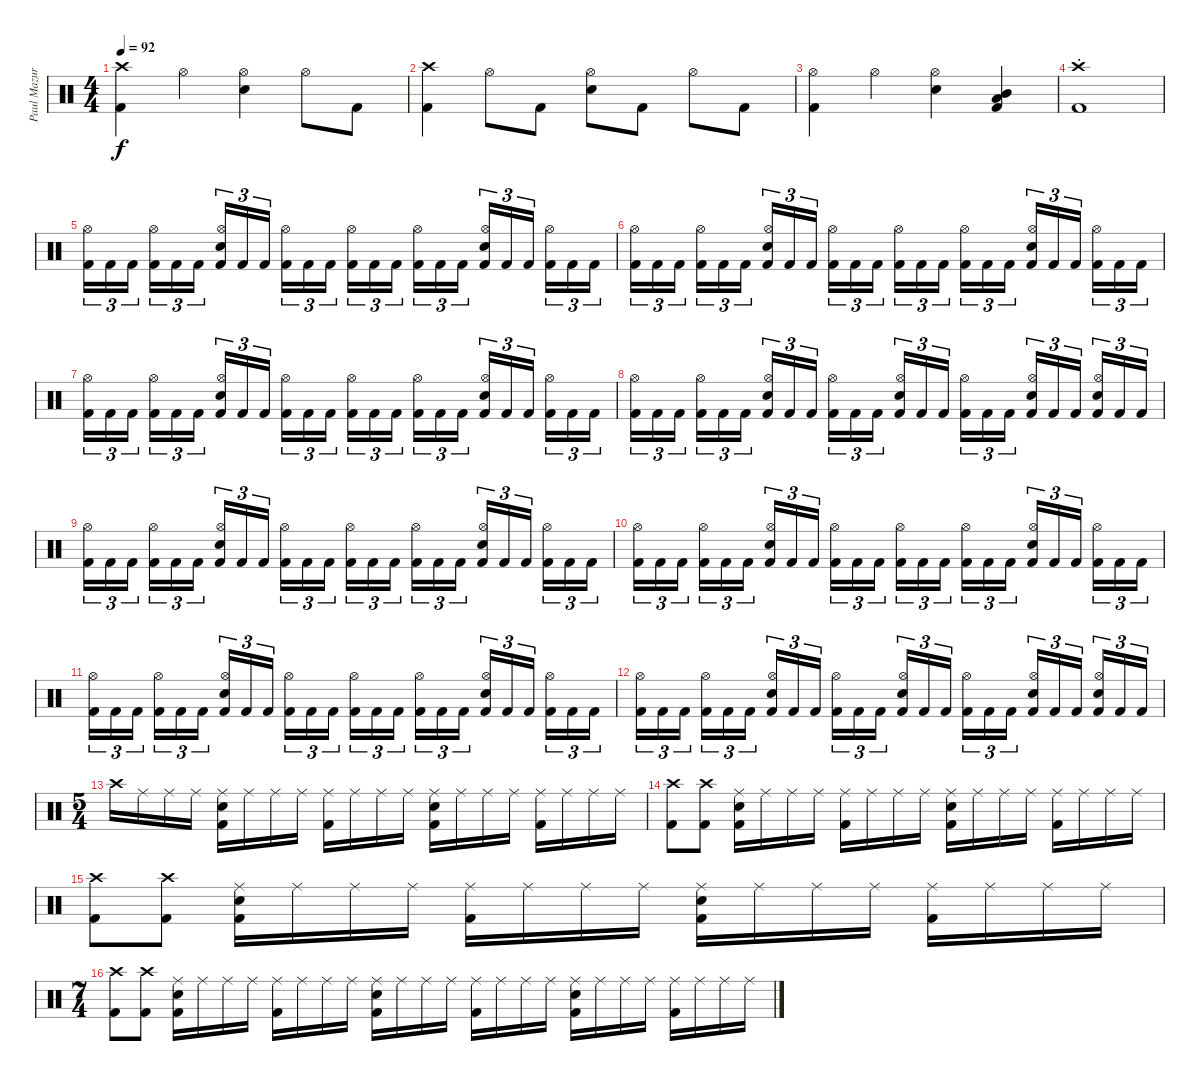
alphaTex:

\track ("Paul Mazurkiewicz" "Paul Mazur") {instrument percussion}
\staff {score}
\articulation defaults
\ts (4 4)
\tempo 92
\clef neutral
\ks c
("Crash high (hit)" "Kick (hit) 2").4{dy f} "Hi-Hat (open)".4 ("Hi-Hat (open)" "Snare (hit) 2").4 "Hi-Hat (open)".8 "Kick (hit) 2".8 |
("Crash high (hit)" "Kick (hit) 2").4 "Hi-Hat (open)".8 "Kick (hit) 2".8 ("Hi-Hat (open)" "Snare (hit) 2").8 "Kick (hit) 2".8 "Hi-Hat (open)".8 "Kick (hit) 2".8 |
("Hi-Hat (open)" "Kick (hit) 2").4 "Hi-Hat (open)".4 ("Hi-Hat (open)" "Snare (hit) 2").4 ("Low Tom (hit)" "Mid Tom (hit)" "Kick (hit) 2").4 |
("Crash high (hit)" "Kick (hit) 2"{st}).1 |
("Hi-Hat (open)" "Kick (hit) 2").16{tu (3 2)} "Kick (hit) 2".16{tu (3 2)} "Kick (hit) 2".16{tu (3 2) beam splitsecondary} ("Hi-Hat (open)" "Kick (hit) 2").16{tu (3 2)} "Kick (hit) 2".16{tu (3 2)} "Kick (hit) 2".16{tu (3 2)} ("Hi-Hat (open)" "Snare (hit) 2" "Kick (hit) 2").16{tu (3 2)} "Kick (hit) 2".16{tu (3 2)} "Kick (hit) 2".16{tu (3 2) beam splitsecondary} ("Hi-Hat (open)" "Kick (hit) 2").16{tu (3 2)} "Kick (hit) 2".16{tu (3 2)} "Kick (hit) 2".16{tu (3 2)} ("Hi-Hat (open)" "Kick (hit) 2").16{tu (3 2)} "Kick (hit) 2".16{tu (3 2)} "Kick (hit) 2".16{tu (3 2) beam splitsecondary} ("Hi-Hat (open)" "Kick (hit) 2").16{tu (3 2)} "Kick (hit) 2".16{tu (3 2)} "Kick (hit) 2".16{tu (3 2)} ("Hi-Hat (open)" "Snare (hit) 2" "Kick (hit) 2").16{tu (3 2)} "Kick (hit) 2".16{tu (3 2)} "Kick (hit) 2".16{tu (3 2) beam splitsecondary} ("Hi-Hat (open)" "Kick (hit) 2").16{tu (3 2)} "Kick (hit) 2".16{tu (3 2)} "Kick (hit) 2".16{tu (3 2)} |
("Hi-Hat (open)" "Kick (hit) 2").16{tu (3 2)} "Kick (hit) 2".16{tu (3 2)} "Kick (hit) 2".16{tu (3 2) beam splitsecondary} ("Hi-Hat (open)" "Kick (hit) 2").16{tu (3 2)} "Kick (hit) 2".16{tu (3 2)} "Kick (hit) 2".16{tu (3 2)} ("Hi-Hat (open)" "Snare (hit) 2" "Kick (hit) 2").16{tu (3 2)} "Kick (hit) 2".16{tu (3 2)} "Kick (hit) 2".16{tu (3 2) beam splitsecondary} ("Hi-Hat (open)" "Kick (hit) 2").16{tu (3 2)} "Kick (hit) 2".16{tu (3 2)} "Kick (hit) 2".16{tu (3 2)} ("Hi-Hat (open)" "Kick (hit) 2").16{tu (3 2)} "Kick (hit) 2".16{tu (3 2)} "Kick (hit) 2".16{tu (3 2) beam splitsecondary} ("Hi-Hat (open)" "Kick (hit) 2").16{tu (3 2)} "Kick (hit) 2".16{tu (3 2)} "Kick (hit) 2".16{tu (3 2)} ("Hi-Hat (open)" "Snare (hit) 2" "Kick (hit) 2").16{tu (3 2)} "Kick (hit) 2".16{tu (3 2)} "Kick (hit) 2".16{tu (3 2) beam splitsecondary} ("Hi-Hat (open)" "Kick (hit) 2").16{tu (3 2)} "Kick (hit) 2".16{tu (3 2)} "Kick (hit) 2".16{tu (3 2)} |
("Hi-Hat (open)" "Kick (hit) 2").16{tu (3 2)} "Kick (hit) 2".16{tu (3 2)} "Kick (hit) 2".16{tu (3 2) beam splitsecondary} ("Hi-Hat (open)" "Kick (hit) 2").16{tu (3 2)} "Kick (hit) 2".16{tu (3 2)} "Kick (hit) 2".16{tu (3 2)} ("Hi-Hat (open)" "Snare (hit) 2" "Kick (hit) 2").16{tu (3 2)} "Kick (hit) 2".16{tu (3 2)} "Kick (hit) 2".16{tu (3 2) beam splitsecondary} ("Hi-Hat (open)" "Kick (hit) 2").16{tu (3 2)} "Kick (hit) 2".16{tu (3 2)} "Kick (hit) 2".16{tu (3 2)} ("Hi-Hat (open)" "Kick (hit) 2").16{tu (3 2)} "Kick (hit) 2".16{tu (3 2)} "Kick (hit) 2".16{tu (3 2) beam splitsecondary} ("Hi-Hat (open)" "Kick (hit) 2").16{tu (3 2)} "Kick (hit) 2".16{tu (3 2)} "Kick (hit) 2".16{tu (3 2)} ("Hi-Hat (open)" "Snare (hit) 2" "Kick (hit) 2").16{tu (3 2)} "Kick (hit) 2".16{tu (3 2)} "Kick (hit) 2".16{tu (3 2) beam splitsecondary} ("Hi-Hat (open)" "Kick (hit) 2").16{tu (3 2)} "Kick (hit) 2".16{tu (3 2)} "Kick (hit) 2".16{tu (3 2)} |
("Hi-Hat (open)" "Kick (hit) 2").16{tu (3 2)} "Kick (hit) 2".16{tu (3 2)} "Kick (hit) 2".16{tu (3 2) beam splitsecondary} ("Hi-Hat (open)" "Kick (hit) 2").16{tu (3 2)} "Kick (hit) 2".16{tu (3 2)} "Kick (hit) 2".16{tu (3 2)} ("Hi-Hat (open)" "Snare (hit) 2" "Kick (hit) 2").16{tu (3 2)} "Kick (hit) 2".16{tu (3 2)} "Kick (hit) 2".16{tu (3 2) beam splitsecondary} ("Hi-Hat (open)" "Kick (hit) 2").16{tu (3 2)} "Kick (hit) 2".16{tu (3 2)} "Kick (hit) 2".16{tu (3 2)} ("Hi-Hat (open)" "Snare (hit) 2" "Kick (hit) 2").16{tu (3 2)} "Kick (hit) 2".16{tu (3 2)} "Kick (hit) 2".16{tu (3 2) beam splitsecondary} ("Hi-Hat (open)" "Kick (hit) 2").16{tu (3 2)} "Kick (hit) 2".16{tu (3 2)} "Kick (hit) 2".16{tu (3 2)} ("Hi-Hat (open)" "Snare (hit) 2" "Kick (hit) 2").16{tu (3 2)} "Kick (hit) 2".16{tu (3 2)} "Kick (hit) 2".16{tu (3 2) beam splitsecondary} ("Hi-Hat (open)" "Snare (hit) 2" "Kick (hit) 2").16{tu (3 2)} "Kick (hit) 2".16{tu (3 2)} "Kick (hit) 2".16{tu (3 2)} |
("Hi-Hat (open)" "Kick (hit) 2").16{tu (3 2)} "Kick (hit) 2".16{tu (3 2)} "Kick (hit) 2".16{tu (3 2) beam splitsecondary} ("Hi-Hat (open)" "Kick (hit) 2").16{tu (3 2)} "Kick (hit) 2".16{tu (3 2)} "Kick (hit) 2".16{tu (3 2)} ("Hi-Hat (open)" "Snare (hit) 2" "Kick (hit) 2").16{tu (3 2)} "Kick (hit) 2".16{tu (3 2)} "Kick (hit) 2".16{tu (3 2) beam splitsecondary} ("Hi-Hat (open)" "Kick (hit) 2").16{tu (3 2)} "Kick (hit) 2".16{tu (3 2)} "Kick (hit) 2".16{tu (3 2)} ("Hi-Hat (open)" "Kick (hit) 2").16{tu (3 2)} "Kick (hit) 2".16{tu (3 2)} "Kick (hit) 2".16{tu (3 2) beam splitsecondary} ("Hi-Hat (open)" "Kick (hit) 2").16{tu (3 2)} "Kick (hit) 2".16{tu (3 2)} "Kick (hit) 2".16{tu (3 2)} ("Hi-Hat (open)" "Snare (hit) 2" "Kick (hit) 2").16{tu (3 2)} "Kick (hit) 2".16{tu (3 2)} "Kick (hit) 2".16{tu (3 2) beam splitsecondary} ("Hi-Hat (open)" "Kick (hit) 2").16{tu (3 2)} "Kick (hit) 2".16{tu (3 2)} "Kick (hit) 2".16{tu (3 2)} |
("Hi-Hat (open)" "Kick (hit) 2").16{tu (3 2)} "Kick (hit) 2".16{tu (3 2)} "Kick (hit) 2".16{tu (3 2) beam splitsecondary} ("Hi-Hat (open)" "Kick (hit) 2").16{tu (3 2)} "Kick (hit) 2".16{tu (3 2)} "Kick (hit) 2".16{tu (3 2)} ("Hi-Hat (open)" "Snare (hit) 2" "Kick (hit) 2").16{tu (3 2)} "Kick (hit) 2".16{tu (3 2)} "Kick (hit) 2".16{tu (3 2) beam splitsecondary} ("Hi-Hat (open)" "Kick (hit) 2").16{tu (3 2)} "Kick (hit) 2".16{tu (3 2)} "Kick (hit) 2".16{tu (3 2)} ("Hi-Hat (open)" "Kick (hit) 2").16{tu (3 2)} "Kick (hit) 2".16{tu (3 2)} "Kick (hit) 2".16{tu (3 2) beam splitsecondary} ("Hi-Hat (open)" "Kick (hit) 2").16{tu (3 2)} "Kick (hit) 2".16{tu (3 2)} "Kick (hit) 2".16{tu (3 2)} ("Hi-Hat (open)" "Snare (hit) 2" "Kick (hit) 2").16{tu (3 2)} "Kick (hit) 2".16{tu (3 2)} "Kick (hit) 2".16{tu (3 2) beam splitsecondary} ("Hi-Hat (open)" "Kick (hit) 2").16{tu (3 2)} "Kick (hit) 2".16{tu (3 2)} "Kick (hit) 2".16{tu (3 2)} |
("Hi-Hat (open)" "Kick (hit) 2").16{tu (3 2)} "Kick (hit) 2".16{tu (3 2)} "Kick (hit) 2".16{tu (3 2) beam splitsecondary} ("Hi-Hat (open)" "Kick (hit) 2").16{tu (3 2)} "Kick (hit) 2".16{tu (3 2)} "Kick (hit) 2".16{tu (3 2)} ("Hi-Hat (open)" "Snare (hit) 2" "Kick (hit) 2").16{tu (3 2)} "Kick (hit) 2".16{tu (3 2)} "Kick (hit) 2".16{tu (3 2) beam splitsecondary} ("Hi-Hat (open)" "Kick (hit) 2").16{tu (3 2)} "Kick (hit) 2".16{tu (3 2)} "Kick (hit) 2".16{tu (3 2)} ("Hi-Hat (open)" "Kick (hit) 2").16{tu (3 2)} "Kick (hit) 2".16{tu (3 2)} "Kick (hit) 2".16{tu (3 2) beam splitsecondary} ("Hi-Hat (open)" "Kick (hit) 2").16{tu (3 2)} "Kick (hit) 2".16{tu (3 2)} "Kick (hit) 2".16{tu (3 2)} ("Hi-Hat (open)" "Snare (hit) 2" "Kick (hit) 2").16{tu (3 2)} "Kick (hit) 2".16{tu (3 2)} "Kick (hit) 2".16{tu (3 2) beam splitsecondary} ("Hi-Hat (open)" "Kick (hit) 2").16{tu (3 2)} "Kick (hit) 2".16{tu (3 2)} "Kick (hit) 2".16{tu (3 2)} |
("Hi-Hat (open)" "Kick (hit) 2").16{tu (3 2)} "Kick (hit) 2".16{tu (3 2)} "Kick (hit) 2".16{tu (3 2) beam splitsecondary} ("Hi-Hat (open)" "Kick (hit) 2").16{tu (3 2)} "Kick (hit) 2".16{tu (3 2)} "Kick (hit) 2".16{tu (3 2)} ("Hi-Hat (open)" "Snare (hit) 2" "Kick (hit) 2").16{tu (3 2)} "Kick (hit) 2".16{tu (3 2)} "Kick (hit) 2".16{tu (3 2) beam splitsecondary} ("Hi-Hat (open)" "Kick (hit) 2").16{tu (3 2)} "Kick (hit) 2".16{tu (3 2)} "Kick (hit) 2".16{tu (3 2)} ("Hi-Hat (open)" "Snare (hit) 2" "Kick (hit) 2").16{tu (3 2)} "Kick (hit) 2".16{tu (3 2)} "Kick (hit) 2".16{tu (3 2) beam splitsecondary} ("Hi-Hat (open)" "Kick (hit) 2").16{tu (3 2)} "Kick (hit) 2".16{tu (3 2)} "Kick (hit) 2".16{tu (3 2)} ("Hi-Hat (open)" "Snare (hit) 2" "Kick (hit) 2").16{tu (3 2)} "Kick (hit) 2".16{tu (3 2)} "Kick (hit) 2".16{tu (3 2) beam splitsecondary} ("Hi-Hat (open)" "Snare (hit) 2" "Kick (hit) 2").16{tu (3 2)} "Kick (hit) 2".16{tu (3 2)} "Kick (hit) 2".16{tu (3 2)} |
\ts (5 4)
"Crash high (hit)".16 "Ride (middle)".16 "Ride (middle)".16 "Ride (middle)".16 ("Ride (middle)" "Snare (hit) 2" "Kick (hit) 2").16 "Ride (middle)".16 "Ride (middle)".16 "Ride (middle)".16 ("Ride (middle)" "Kick (hit) 2").16 "Ride (middle)".16 "Ride (middle)".16 "Ride (middle)".16 ("Ride (middle)" "Snare (hit) 2" "Kick (hit) 2").16 "Ride (middle)".16 "Ride (middle)".16 "Ride (middle)".16 ("Ride (middle)" "Kick (hit) 2").16 "Ride (middle)".16 "Ride (middle)".16 "Ride (middle)".16 |
("Crash high (hit)" "Kick (hit) 2").8 ("Crash high (hit)" "Kick (hit) 2").8 ("Ride (middle)" "Snare (hit) 2" "Kick (hit) 2").16 "Ride (middle)".16 "Ride (middle)".16 "Ride (middle)".16 ("Ride (middle)" "Kick (hit) 2").16 "Ride (middle)".16 "Ride (middle)".16 "Ride (middle)".16 ("Ride (middle)" "Snare (hit) 2" "Kick (hit) 2").16 "Ride (middle)".16 "Ride (middle)".16 "Ride (middle)".16 ("Ride (middle)" "Kick (hit) 2").16 "Ride (middle)".16 "Ride (middle)".16 "Ride (middle)".16 |
("Crash high (hit)" "Kick (hit) 2").8 ("Crash high (hit)" "Kick (hit) 2").8 ("Ride (middle)" "Snare (hit) 2" "Kick (hit) 2").16 "Ride (middle)".16 "Ride (middle)".16 "Ride (middle)".16 ("Ride (middle)" "Kick (hit) 2").16 "Ride (middle)".16 "Ride (middle)".16 "Ride (middle)".16 ("Ride (middle)" "Snare (hit) 2" "Kick (hit) 2").16 "Ride (middle)".16 "Ride (middle)".16 "Ride (middle)".16 ("Ride (middle)" "Kick (hit) 2").16 "Ride (middle)".16 "Ride (middle)".16 "Ride (middle)".16 |
\ts (7 4)
("Crash high (hit)" "Kick (hit) 2").8 ("Crash high (hit)" "Kick (hit) 2").8 ("Ride (middle)" "Snare (hit) 2" "Kick (hit) 2").16 "Ride (middle)".16 "Ride (middle)".16 "Ride (middle)".16 ("Ride (middle)" "Kick (hit) 2").16 "Ride (middle)".16 "Ride (middle)".16 "Ride (middle)".16 ("Ride (middle)" "Snare (hit) 2" "Kick (hit) 2").16 "Ride (middle)".16 "Ride (middle)".16 "Ride (middle)".16 ("Ride (middle)" "Kick (hit) 2").16 "Ride (middle)".16 "Ride (middle)".16 "Ride (middle)".16 ("Ride (middle)" "Snare (hit) 2" "Kick (hit) 2").16 "Ride (middle)".16 "Ride (middle)".16 "Ride (middle)".16 ("Ride (middle)" "Kick (hit) 2").16 "Ride (middle)".16 "Ride (middle)".16 "Ride (middle)".16
